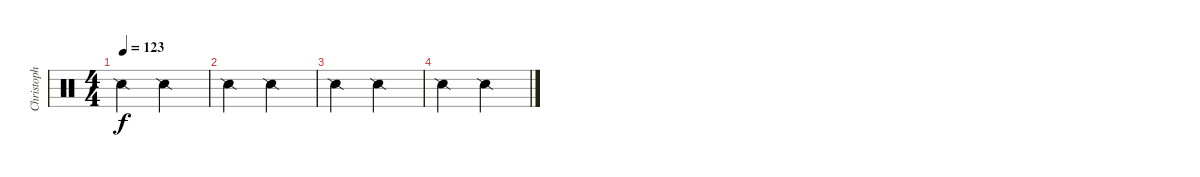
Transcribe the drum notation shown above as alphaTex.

\track ("Christoph DOOM Schneider" "Christoph ") {instrument percussion}
\staff {score}
\articulation defaults
\ts (4 4)
\tempo 123
\clef neutral
\ks c "Snare (side stick) 2".2{dy f} "Snare (side stick) 2".2
|
"Snare (side stick) 2".2 "Snare (side stick) 2".2 |
"Snare (side stick) 2".2 "Snare (side stick) 2".2 |
"Snare (side stick) 2".2 "Snare (side stick) 2".2
